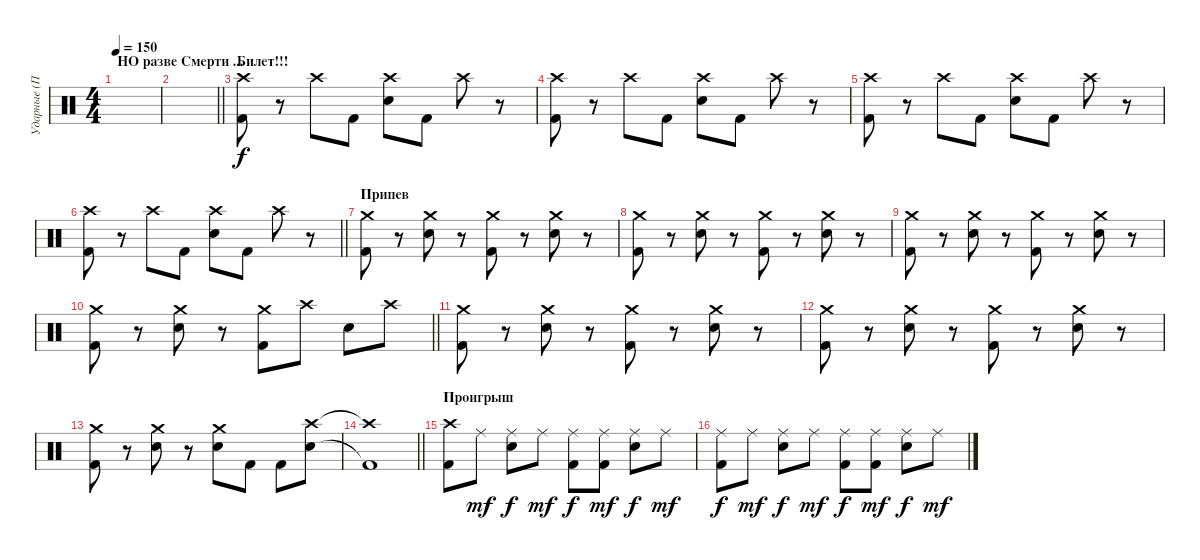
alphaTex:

\track ("Ударные (Поручик)" "Ударные (П") {instrument percussion}
\staff {score}
\articulation defaults
\ts (4 4)
\section ("" "НО разве Смерти ...")
\tempo 150
\clef neutral
\ks c
|
\barLineRight lightlight
|
\section ("" "Билет!!!")
("Crash high (hit)" "Kick (hit) 2").8 r.8 "Crash high (hit)".8 "Kick (hit) 2".8 ("Crash high (hit)" "Snare (hit) 2").8 "Kick (hit) 2".8 "Crash high (hit)".8 r.8 |
("Crash high (hit)" "Kick (hit) 2").8 r.8 "Crash high (hit)".8 "Kick (hit) 2".8 ("Crash high (hit)" "Snare (hit) 2").8 "Kick (hit) 2".8 "Crash high (hit)".8 r.8 |
("Crash high (hit)" "Kick (hit) 2").8 r.8 "Crash high (hit)".8 "Kick (hit) 2".8 ("Crash high (hit)" "Snare (hit) 2").8 "Kick (hit) 2".8 "Crash high (hit)".8 r.8 |
\barLineRight lightlight
("Crash high (hit)" "Kick (hit) 2").8 r.8 "Crash high (hit)".8 "Kick (hit) 2".8 ("Crash high (hit)" "Snare (hit) 2").8 "Kick (hit) 2".8 "Crash high (hit)".8 r.8 |
\section ("" "Припев")
("Crash medium (hit)" "Kick (hit) 2").8 r.8 ("Crash medium (hit)" "Snare (hit) 2").8 r.8 ("Crash medium (hit)" "Kick (hit) 2").8 r.8 ("Crash medium (hit)" "Snare (hit) 2").8 r.8 |
("Crash medium (hit)" "Kick (hit) 2").8 r.8 ("Crash medium (hit)" "Snare (hit) 2").8 r.8 ("Crash medium (hit)" "Kick (hit) 2").8 r.8 ("Crash medium (hit)" "Snare (hit) 2").8 r.8 |
("Crash medium (hit)" "Kick (hit) 2").8 r.8 ("Crash medium (hit)" "Snare (hit) 2").8 r.8 ("Crash medium (hit)" "Kick (hit) 2").8 r.8 ("Crash medium (hit)" "Snare (hit) 2").8 r.8 |
\barLineRight lightlight
("Crash medium (hit)" "Kick (hit) 2").8 r.8 ("Crash medium (hit)" "Snare (hit) 2").8 r.8 ("Crash medium (hit)" "Kick (hit) 2").8 "Crash high (hit)".8 "Snare (hit) 2".8 "Crash high (hit)".8 |
("Crash medium (hit)" "Kick (hit) 2").8 r.8 ("Crash medium (hit)" "Snare (hit) 2").8 r.8 ("Crash medium (hit)" "Kick (hit) 2").8 r.8 ("Crash medium (hit)" "Snare (hit) 2").8 r.8 |
("Crash medium (hit)" "Kick (hit) 2").8 r.8 ("Crash medium (hit)" "Snare (hit) 2").8 r.8 ("Crash medium (hit)" "Kick (hit) 2").8 r.8 ("Crash medium (hit)" "Snare (hit) 2").8 r.8 |
("Crash medium (hit)" "Kick (hit) 2").8 r.8 ("Crash medium (hit)" "Snare (hit) 2").8 r.8 ("Crash medium (hit)" "Snare (hit) 2").8 "Kick (hit) 2".8 "Kick (hit) 2".8 ("Crash high (hit)" "Snare (hit) 2").8 |
\barLineRight lightlight
("Crash high (hit)"{t} "Kick (hit) 2"{t}).1 |
\section ("" "Проигрыш")
("Crash high (hit)" "Kick (hit) 2").8 "Ride (middle)".8{dy mf} ("Ride (middle)" "Snare (hit) 2").8{dy f} "Ride (middle)".8{dy mf} ("Ride (middle)" "Kick (hit) 2").8{dy f} ("Ride (middle)" "Kick (hit) 2").8{dy mf} ("Ride (middle)" "Snare (hit) 2").8{dy f} "Ride (middle)".8{dy mf} |
("Ride (middle)" "Kick (hit) 2").8{dy f} "Ride (middle)".8{dy mf} ("Ride (middle)" "Snare (hit) 2").8{dy f} "Ride (middle)".8{dy mf} ("Ride (middle)" "Kick (hit) 2").8{dy f} ("Ride (middle)" "Kick (hit) 2").8{dy mf} ("Ride (middle)" "Snare (hit) 2").8{dy f} "Ride (middle)".8{dy mf}
